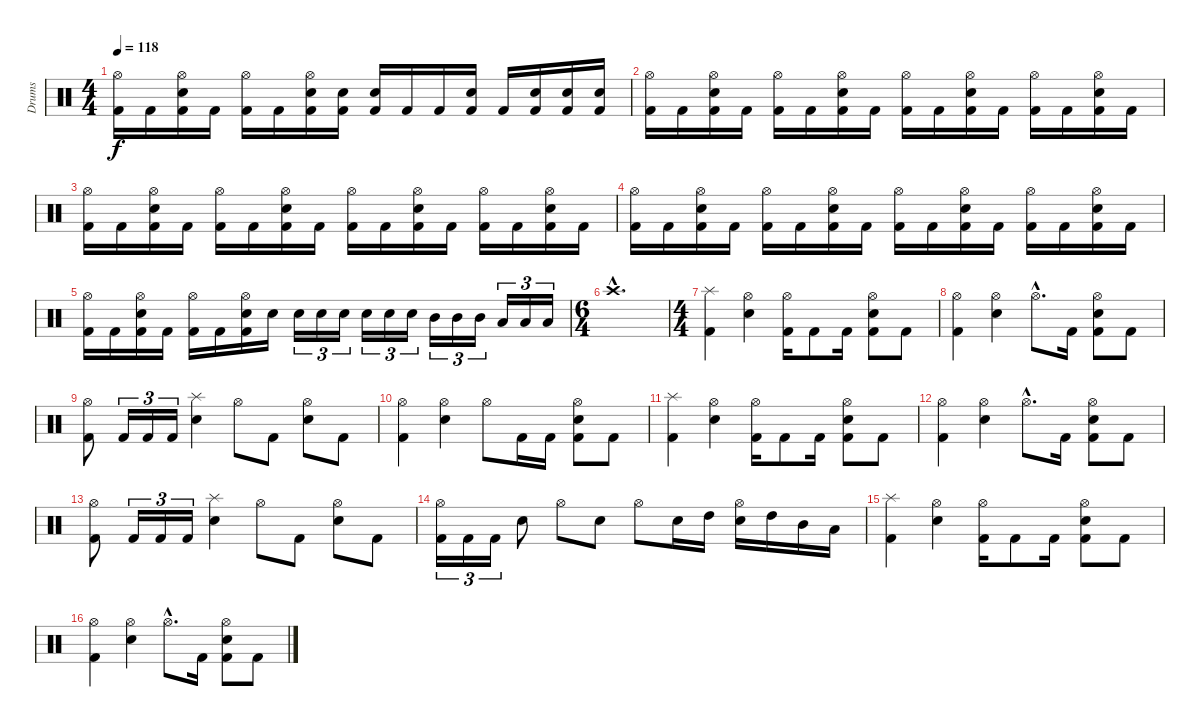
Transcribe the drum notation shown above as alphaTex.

\track ("Drums" "Drums") {instrument percussion}
\staff {score}
\articulation defaults
\ts (4 4)
\tempo 118
\clef neutral
\ks c
("Hi-Hat (open)" "Kick (hit) 2").16{dy f} "Kick (hit) 2".16 ("Hi-Hat (open)" "Snare (hit) 2" "Kick (hit) 2").16 "Kick (hit) 2".16 ("Hi-Hat (open)" "Kick (hit) 2").16 "Kick (hit) 2".16 ("Hi-Hat (open)" "Snare (hit) 2" "Kick (hit) 2").16 ("Snare (hit) 2" "Kick (hit) 2").16 ("Snare (hit) 2" "Kick (hit) 2").16 "Kick (hit) 2".16 "Kick (hit) 2".16 ("Snare (hit) 2" "Kick (hit) 2").16 "Kick (hit) 2".16 ("Snare (hit) 2" "Kick (hit) 2").16 ("Snare (hit) 2" "Kick (hit) 2").16 ("Snare (hit) 2" "Kick (hit) 2").16 |
("Hi-Hat (open)" "Kick (hit) 2").16 "Kick (hit) 2".16 ("Hi-Hat (open)" "Snare (hit) 2" "Kick (hit) 2").16 "Kick (hit) 2".16 ("Hi-Hat (open)" "Kick (hit) 2").16 "Kick (hit) 2".16 ("Hi-Hat (open)" "Snare (hit) 2" "Kick (hit) 2").16 "Kick (hit) 2".16 ("Hi-Hat (open)" "Kick (hit) 2").16 "Kick (hit) 2".16 ("Hi-Hat (open)" "Snare (hit) 2" "Kick (hit) 2").16 "Kick (hit) 2".16 ("Hi-Hat (open)" "Kick (hit) 2").16 "Kick (hit) 2".16 ("Hi-Hat (open)" "Snare (hit) 2" "Kick (hit) 2").16 "Kick (hit) 2".16 |
("Hi-Hat (open)" "Kick (hit) 2").16 "Kick (hit) 2".16 ("Hi-Hat (open)" "Snare (hit) 2" "Kick (hit) 2").16 "Kick (hit) 2".16 ("Hi-Hat (open)" "Kick (hit) 2").16 "Kick (hit) 2".16 ("Hi-Hat (open)" "Snare (hit) 2" "Kick (hit) 2").16 "Kick (hit) 2".16 ("Hi-Hat (open)" "Kick (hit) 2").16 "Kick (hit) 2".16 ("Hi-Hat (open)" "Snare (hit) 2" "Kick (hit) 2").16 "Kick (hit) 2".16 ("Hi-Hat (open)" "Kick (hit) 2").16 "Kick (hit) 2".16 ("Hi-Hat (open)" "Snare (hit) 2" "Kick (hit) 2").16 "Kick (hit) 2".16 |
("Hi-Hat (open)" "Kick (hit) 2").16 "Kick (hit) 2".16 ("Hi-Hat (open)" "Snare (hit) 2" "Kick (hit) 2").16 "Kick (hit) 2".16 ("Hi-Hat (open)" "Kick (hit) 2").16 "Kick (hit) 2".16 ("Hi-Hat (open)" "Snare (hit) 2" "Kick (hit) 2").16 "Kick (hit) 2".16 ("Hi-Hat (open)" "Kick (hit) 2").16 "Kick (hit) 2".16 ("Hi-Hat (open)" "Snare (hit) 2" "Kick (hit) 2").16 "Kick (hit) 2".16 ("Hi-Hat (open)" "Kick (hit) 2").16 "Kick (hit) 2".16 ("Hi-Hat (open)" "Snare (hit) 2" "Kick (hit) 2").16 "Kick (hit) 2".16 |
("Hi-Hat (open)" "Kick (hit) 2").16 "Kick (hit) 2".16 ("Hi-Hat (open)" "Snare (hit) 2" "Kick (hit) 2").16 "Kick (hit) 2".16 ("Hi-Hat (open)" "Kick (hit) 2").16 "Kick (hit) 2".16 ("Hi-Hat (open)" "Snare (hit) 2" "Kick (hit) 2").16 "Snare (hit) 2".16 "Snare (hit) 2".16{tu (3 2)} "Snare (hit) 2".16{tu (3 2)} "Snare (hit) 2".16{tu (3 2)} "Snare (hit) 2".16{tu (3 2)} "Snare (hit) 2".16{tu (3 2)} "Snare (hit) 2".16{tu (3 2)} "Mid Tom (hit)".16{tu (3 2)} "Mid Tom (hit)".16{tu (3 2)} "Mid Tom (hit)".16{tu (3 2)} "Low Tom (hit)".16{tu (3 2)} "Low Tom (hit)".16{tu (3 2)} "Low Tom (hit)".16{tu (3 2)} |
\ts (6 4)
"Crash high (hit)"{hac}.1{d} |
\ts (4 4)
("Splash (hit)" "Kick (hit) 2").4 ("Hi-Hat (open)" "Snare (hit) 2").4 ("Hi-Hat (open)" "Kick (hit) 2").16 "Kick (hit) 2".8 "Kick (hit) 2".16 ("Hi-Hat (open)" "Snare (hit) 2" "Kick (hit) 2").8 "Kick (hit) 2".8 |
("Hi-Hat (open)" "Kick (hit) 2").4 ("Hi-Hat (open)" "Snare (hit) 2").4 "Hi-Hat (open)"{hac}.8{d} "Kick (hit) 2".16 ("Hi-Hat (open)" "Snare (hit) 2" "Kick (hit) 2").8 "Kick (hit) 2".8 |
("Hi-Hat (open)" "Kick (hit) 2").8 "Kick (hit) 2".16{tu (3 2)} "Kick (hit) 2".16{tu (3 2)} "Kick (hit) 2".16{tu (3 2)} ("Splash (hit)" "Snare (hit) 2").4 "Hi-Hat (open)".8 "Kick (hit) 2".8 ("Hi-Hat (open)" "Snare (hit) 2").8 "Kick (hit) 2".8 |
("Hi-Hat (open)" "Kick (hit) 2").4 ("Hi-Hat (open)" "Snare (hit) 2").4 "Hi-Hat (open)".8 "Kick (hit) 2".16 "Kick (hit) 2".16 ("Hi-Hat (open)" "Snare (hit) 2" "Kick (hit) 2").8 "Kick (hit) 2".8 |
("Splash (hit)" "Kick (hit) 2").4 ("Hi-Hat (open)" "Snare (hit) 2").4 ("Hi-Hat (open)" "Kick (hit) 2").16 "Kick (hit) 2".8 "Kick (hit) 2".16 ("Hi-Hat (open)" "Snare (hit) 2" "Kick (hit) 2").8 "Kick (hit) 2".8 |
("Hi-Hat (open)" "Kick (hit) 2").4 ("Hi-Hat (open)" "Snare (hit) 2").4 "Hi-Hat (open)"{hac}.8{d} "Kick (hit) 2".16 ("Hi-Hat (open)" "Snare (hit) 2" "Kick (hit) 2").8 "Kick (hit) 2".8 |
("Hi-Hat (open)" "Kick (hit) 2").8 "Kick (hit) 2".16{tu (3 2)} "Kick (hit) 2".16{tu (3 2)} "Kick (hit) 2".16{tu (3 2)} ("Splash (hit)" "Snare (hit) 2").4 "Hi-Hat (open)".8 "Kick (hit) 2".8 ("Hi-Hat (open)" "Snare (hit) 2").8 "Kick (hit) 2".8 |
("Hi-Hat (open)" "Kick (hit) 2").16{tu (3 2)} "Kick (hit) 2".16{tu (3 2)} "Kick (hit) 2".16{tu (3 2)} "Snare (hit) 2".8 "Hi-Hat (open)".8 "Snare (hit) 2".8 "Hi-Hat (open)".8 "Snare (hit) 2".16 "High Tom (hit)".16 ("Hi-Hat (open)" "Snare (hit) 2").16 "High Tom (hit)".16 "Mid Tom (hit)".16 "Low Tom (hit)".16 |
("Splash (hit)" "Kick (hit) 2").4 ("Hi-Hat (open)" "Snare (hit) 2").4 ("Hi-Hat (open)" "Kick (hit) 2").16 "Kick (hit) 2".8 "Kick (hit) 2".16 ("Hi-Hat (open)" "Snare (hit) 2" "Kick (hit) 2").8 "Kick (hit) 2".8 |
("Hi-Hat (open)" "Kick (hit) 2").4 ("Hi-Hat (open)" "Snare (hit) 2").4 "Hi-Hat (open)"{hac}.8{d} "Kick (hit) 2".16 ("Hi-Hat (open)" "Snare (hit) 2" "Kick (hit) 2").8 "Kick (hit) 2".8
